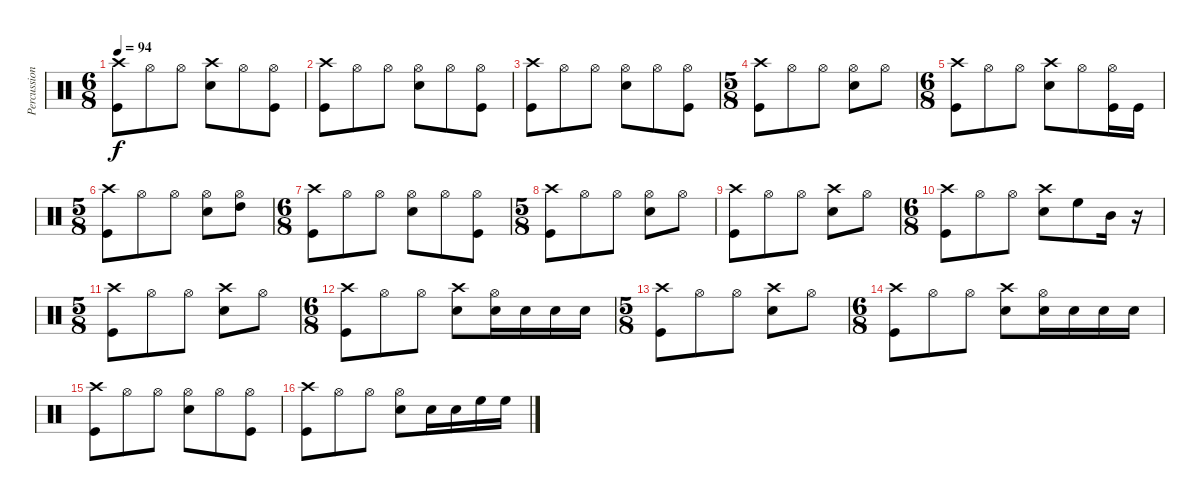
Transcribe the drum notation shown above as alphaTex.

\track ("Percussioni" "Percussion") {instrument percussion}
\staff {score}
\articulation defaults
\ts (6 8)
\tempo 94
\clef neutral
\ks c
("Crash high (hit)" "Kick (hit)").8{dy f} "Hi-Hat (open)".8 "Hi-Hat (open)".8 ("Crash high (hit)" "Snare (hit) 2").8 "Hi-Hat (open)".8 ("Hi-Hat (open)" "Kick (hit)").8 |
("Crash high (hit)" "Kick (hit)").8 "Hi-Hat (open)".8 "Hi-Hat (open)".8 ("Hi-Hat (open)" "Snare (hit) 2").8 "Hi-Hat (open)".8 ("Hi-Hat (open)" "Kick (hit)").8 |
("Crash high (hit)" "Kick (hit)").8 "Hi-Hat (open)".8 "Hi-Hat (open)".8 ("Hi-Hat (open)" "Snare (hit) 2").8 "Hi-Hat (open)".8 ("Hi-Hat (open)" "Kick (hit)").8 |
\ts (5 8)
("Crash high (hit)" "Kick (hit)").8 "Hi-Hat (open)".8 "Hi-Hat (open)".8 ("Hi-Hat (open)" "Snare (hit) 2").8 "Hi-Hat (open)".8 |
\ts (6 8)
("Crash high (hit)" "Kick (hit)").8 "Hi-Hat (open)".8 "Hi-Hat (open)".8 ("Crash high (hit)" "Snare (hit) 2").8 "Hi-Hat (open)".8 ("Kick (hit)" "Hi-Hat (open)").16 "Kick (hit)".16 |
\ts (5 8)
("Crash high (hit)" "Kick (hit)").8 "Hi-Hat (open)".8 "Hi-Hat (open)".8 ("Snare (hit) 2" "Hi-Hat (open)").8 ("High Tom (hit)" "Hi-Hat (open)").8 |
\ts (6 8)
("Crash high (hit)" "Kick (hit)").8 "Hi-Hat (open)".8 "Hi-Hat (open)".8 ("Hi-Hat (open)" "Snare (hit) 2").8 "Hi-Hat (open)".8 ("Hi-Hat (open)" "Kick (hit)").8 |
\ts (5 8)
("Crash high (hit)" "Kick (hit)").8 "Hi-Hat (open)".8 "Hi-Hat (open)".8 ("Hi-Hat (open)" "Snare (hit) 2").8 "Hi-Hat (open)".8 |
("Crash high (hit)" "Kick (hit)").8 "Hi-Hat (open)".8 "Hi-Hat (open)".8 ("Crash high (hit)" "Snare (hit) 2").8 "Hi-Hat (open)".8 |
\ts (6 8)
("Crash high (hit)" "Kick (hit)").8 "Hi-Hat (open)".8 "Hi-Hat (open)".8 ("Crash high (hit)" "Snare (hit) 2").8 "High Floor Tom (hit)".8 "Mid Tom (hit)".16 r.16 |
\ts (5 8)
("Crash high (hit)" "Kick (hit)").8 "Hi-Hat (open)".8 "Hi-Hat (open)".8 ("Crash high (hit)" "Snare (hit) 2").8 "Hi-Hat (open)".8 |
\ts (6 8)
("Crash high (hit)" "Kick (hit)").8 "Hi-Hat (open)".8 "Hi-Hat (open)".8 ("Crash high (hit)" "Snare (hit) 2").8 ("Snare (hit) 2" "Hi-Hat (open)").16 "Snare (hit) 2".16 "Snare (hit) 2".16 "Snare (hit) 2".16 |
\ts (5 8)
("Crash high (hit)" "Kick (hit)").8 "Hi-Hat (open)".8 "Hi-Hat (open)".8 ("Crash high (hit)" "Snare (hit) 2").8 "Hi-Hat (open)".8 |
\ts (6 8)
("Crash high (hit)" "Kick (hit)").8 "Hi-Hat (open)".8 "Hi-Hat (open)".8 ("Crash high (hit)" "Snare (hit) 2").8 ("Snare (hit) 2" "Hi-Hat (open)").16 "Snare (hit) 2".16 "Snare (hit) 2".16 "Snare (hit) 2".16 |
("Crash high (hit)" "Kick (hit)").8 "Hi-Hat (open)".8 "Hi-Hat (open)".8 ("Hi-Hat (open)" "Snare (hit) 2").8 "Hi-Hat (open)".8 ("Hi-Hat (open)" "Kick (hit)").8 |
("Crash high (hit)" "Kick (hit)").8 "Hi-Hat (open)".8 "Hi-Hat (open)".8 ("Hi-Hat (open)" "Snare (hit) 2").8 "Snare (hit) 2".16 "Snare (hit) 2".16 "High Floor Tom (hit)".16 "High Floor Tom (hit)".16
